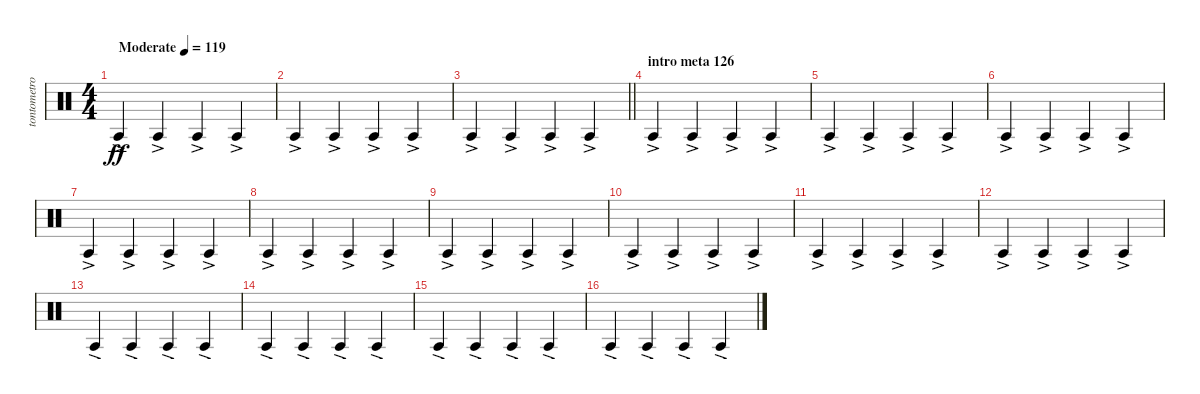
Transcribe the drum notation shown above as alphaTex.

\track ("tontometro" "tontometro") {mute instrument percussion}
\staff {score}
\articulation defaults
\ts (4 4)
\tempo (119 "Moderate")
\clef neutral
\ks c "Agogo tow (hit)"{ac}.4{dy ff} "Agogo tow (hit)"{ac}.4 "Agogo tow (hit)"{ac}.4 "Agogo tow (hit)"{ac}.4
|
"Agogo tow (hit)"{ac}.4 "Agogo tow (hit)"{ac}.4 "Agogo tow (hit)"{ac}.4 "Agogo tow (hit)"{ac}.4 |
\barLineRight lightlight "Agogo tow (hit)"{ac}.4 "Agogo tow (hit)"{ac}.4 "Agogo tow (hit)"{ac}.4 "Agogo tow (hit)"{ac}.4
|
\section ("" "intro meta 126")
"Agogo tow (hit)"{ac}.4 "Agogo tow (hit)"{ac}.4 "Agogo tow (hit)"{ac}.4 "Agogo tow (hit)"{ac}.4 |
"Agogo tow (hit)"{ac}.4 "Agogo tow (hit)"{ac}.4 "Agogo tow (hit)"{ac}.4 "Agogo tow (hit)"{ac}.4 |
"Agogo tow (hit)"{ac}.4 "Agogo tow (hit)"{ac}.4 "Agogo tow (hit)"{ac}.4 "Agogo tow (hit)"{ac}.4 |
"Agogo tow (hit)"{ac}.4 "Agogo tow (hit)"{ac}.4 "Agogo tow (hit)"{ac}.4 "Agogo tow (hit)"{ac}.4 |
"Agogo tow (hit)"{ac}.4 "Agogo tow (hit)"{ac}.4 "Agogo tow (hit)"{ac}.4 "Agogo tow (hit)"{ac}.4 |
"Agogo tow (hit)"{ac}.4 "Agogo tow (hit)"{ac}.4 "Agogo tow (hit)"{ac}.4 "Agogo tow (hit)"{ac}.4 |
"Agogo tow (hit)"{ac}.4 "Agogo tow (hit)"{ac}.4 "Agogo tow (hit)"{ac}.4 "Agogo tow (hit)"{ac}.4 |
"Agogo tow (hit)"{ac}.4 "Agogo tow (hit)"{ac}.4 "Agogo tow (hit)"{ac}.4 "Agogo tow (hit)"{ac}.4 |
"Agogo tow (hit)"{ac}.4 "Agogo tow (hit)"{ac}.4 "Agogo tow (hit)"{ac}.4 "Agogo tow (hit)"{ac}.4 |
"Agogo tow (hit)"{ac}.4 "Agogo tow (hit)"{ac}.4 "Agogo tow (hit)"{ac}.4 "Agogo tow (hit)"{ac}.4 |
"Agogo tow (hit)"{ac}.4 "Agogo tow (hit)"{ac}.4 "Agogo tow (hit)"{ac}.4 "Agogo tow (hit)"{ac}.4 |
"Agogo tow (hit)"{ac}.4 "Agogo tow (hit)"{ac}.4 "Agogo tow (hit)"{ac}.4 "Agogo tow (hit)"{ac}.4 |
"Agogo tow (hit)"{ac}.4 "Agogo tow (hit)"{ac}.4 "Agogo tow (hit)"{ac}.4 "Agogo tow (hit)"{ac}.4
